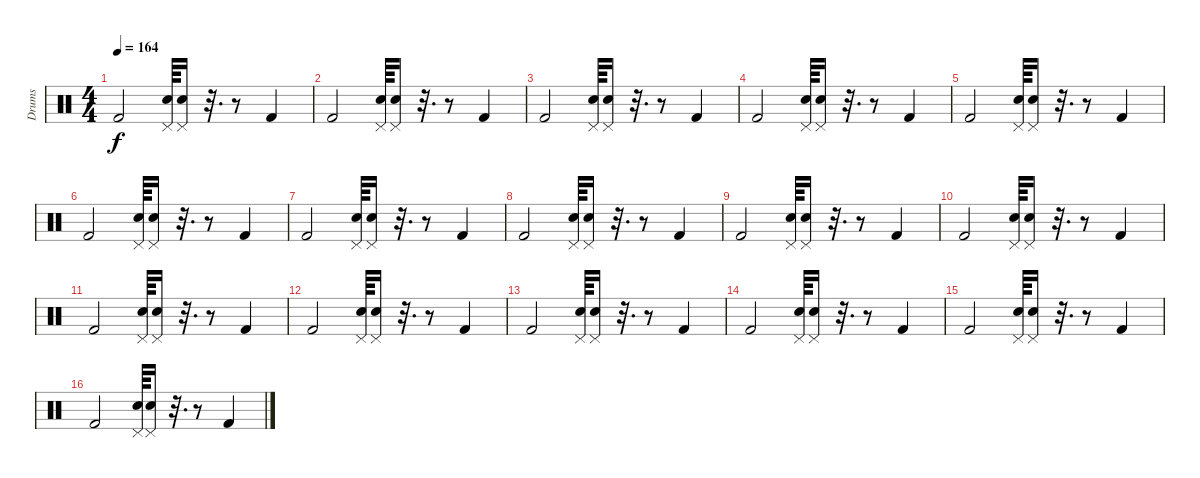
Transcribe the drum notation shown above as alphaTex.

\track ("Drums" "Drums") {instrument percussion}
\staff {score}
\articulation defaults
\ts (4 4)
\tempo 164
\clef neutral
\ks c "Kick (hit) 2".2{dy f}
("Pedal Hi-Hat (hit)" "Electric Snare (hit)").64 ("Pedal Hi-Hat (hit)" "Electric Snare (hit)").16 r.32{d} r.8 "Kick (hit) 2".4 |
"Kick (hit) 2".2 ("Pedal Hi-Hat (hit)" "Electric Snare (hit)").64 ("Pedal Hi-Hat (hit)" "Electric Snare (hit)").16 r.32{d} r.8 "Kick (hit) 2".4 |
"Kick (hit) 2".2 ("Pedal Hi-Hat (hit)" "Electric Snare (hit)").64 ("Pedal Hi-Hat (hit)" "Electric Snare (hit)").16 r.32{d} r.8 "Kick (hit) 2".4 |
"Kick (hit) 2".2 ("Pedal Hi-Hat (hit)" "Electric Snare (hit)").64 ("Pedal Hi-Hat (hit)" "Electric Snare (hit)").16 r.32{d} r.8 "Kick (hit) 2".4 |
"Kick (hit) 2".2 ("Pedal Hi-Hat (hit)" "Electric Snare (hit)").64 ("Pedal Hi-Hat (hit)" "Electric Snare (hit)").16 r.32{d} r.8 "Kick (hit) 2".4 |
"Kick (hit) 2".2 ("Pedal Hi-Hat (hit)" "Electric Snare (hit)").64 ("Pedal Hi-Hat (hit)" "Electric Snare (hit)").16 r.32{d} r.8 "Kick (hit) 2".4 |
"Kick (hit) 2".2 ("Pedal Hi-Hat (hit)" "Electric Snare (hit)").64 ("Pedal Hi-Hat (hit)" "Electric Snare (hit)").16 r.32{d} r.8 "Kick (hit) 2".4 |
"Kick (hit) 2".2 ("Pedal Hi-Hat (hit)" "Electric Snare (hit)").64 ("Pedal Hi-Hat (hit)" "Electric Snare (hit)").16 r.32{d} r.8 "Kick (hit) 2".4 |
"Kick (hit) 2".2 ("Pedal Hi-Hat (hit)" "Electric Snare (hit)").64 ("Pedal Hi-Hat (hit)" "Electric Snare (hit)").16 r.32{d} r.8 "Kick (hit) 2".4 |
"Kick (hit) 2".2 ("Pedal Hi-Hat (hit)" "Electric Snare (hit)").64 ("Pedal Hi-Hat (hit)" "Electric Snare (hit)").16 r.32{d} r.8 "Kick (hit) 2".4 |
"Kick (hit) 2".2 ("Pedal Hi-Hat (hit)" "Electric Snare (hit)").64 ("Pedal Hi-Hat (hit)" "Electric Snare (hit)").16 r.32{d} r.8 "Kick (hit) 2".4 |
"Kick (hit) 2".2 ("Pedal Hi-Hat (hit)" "Electric Snare (hit)").64 ("Pedal Hi-Hat (hit)" "Electric Snare (hit)").16 r.32{d} r.8 "Kick (hit) 2".4 |
"Kick (hit) 2".2 ("Pedal Hi-Hat (hit)" "Electric Snare (hit)").64 ("Pedal Hi-Hat (hit)" "Electric Snare (hit)").16 r.32{d} r.8 "Kick (hit) 2".4 |
"Kick (hit) 2".2 ("Pedal Hi-Hat (hit)" "Electric Snare (hit)").64 ("Pedal Hi-Hat (hit)" "Electric Snare (hit)").16 r.32{d} r.8 "Kick (hit) 2".4 |
"Kick (hit) 2".2 ("Pedal Hi-Hat (hit)" "Electric Snare (hit)").64 ("Pedal Hi-Hat (hit)" "Electric Snare (hit)").16 r.32{d} r.8 "Kick (hit) 2".4 |
"Kick (hit) 2".2 ("Pedal Hi-Hat (hit)" "Electric Snare (hit)").64 ("Pedal Hi-Hat (hit)" "Electric Snare (hit)").16 r.32{d} r.8 "Kick (hit) 2".4
